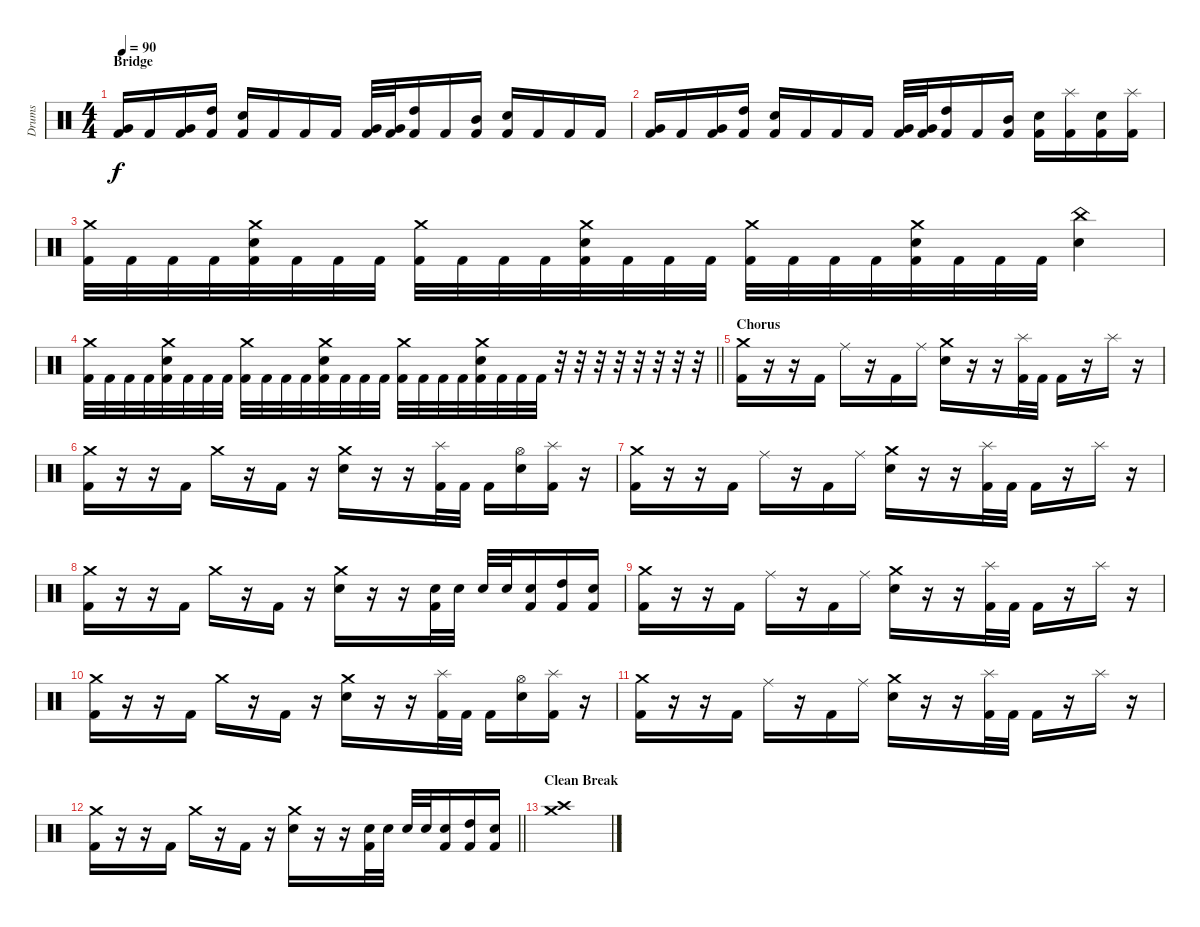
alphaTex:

\track ("Drums" "Drums") {instrument percussion}
\staff {score}
\articulation defaults
\ts (4 4)
\section ("" "Bridge")
\tempo 90
\clef neutral
\ks c
("Very Low Tom (hit)" "Kick (hit) 2").16{dy f} "Kick (hit) 2".16 ("Very Low Tom (hit)" "Kick (hit) 2").16 ("High Tom (hit)" "Kick (hit) 2").16 ("Electric Snare (hit)" "Kick (hit) 2").16 "Kick (hit) 2".16 "Kick (hit) 2".16 "Kick (hit) 2".16 ("Very Low Tom (hit)" "Kick (hit) 2").32 ("Very Low Tom (hit)" "Kick (hit) 2").32 ("High Tom (hit)" "Kick (hit) 2").16 "Kick (hit) 2".16 ("Mid Tom (hit)" "Kick (hit) 2").16 ("Electric Snare (hit)" "Kick (hit) 2").16 "Kick (hit) 2".16 "Kick (hit) 2".16 "Kick (hit) 2".16 |
("Very Low Tom (hit)" "Kick (hit) 2").16 "Kick (hit) 2".16 ("Very Low Tom (hit)" "Kick (hit) 2").16 ("High Tom (hit)" "Kick (hit) 2").16 ("Electric Snare (hit)" "Kick (hit) 2").16 "Kick (hit) 2".16 "Kick (hit) 2".16 "Kick (hit) 2".16 ("Very Low Tom (hit)" "Kick (hit) 2").32 ("Very Low Tom (hit)" "Kick (hit) 2").32 ("High Tom (hit)" "Kick (hit) 2").16 "Kick (hit) 2".16 ("Mid Tom (hit)" "Kick (hit) 2").16 ("Electric Snare (hit)" "Kick (hit) 2").16 ("Splash (hit)" "Kick (hit) 2").16 ("Electric Snare (hit)" "Kick (hit) 2").16 ("Splash (hit)" "Kick (hit) 2").16 |
("Crash medium (hit)" "Kick (hit) 2").32 "Kick (hit) 2".32 "Kick (hit) 2".32 "Kick (hit) 2".32 ("Crash medium (hit)" "Electric Snare (hit)" "Kick (hit) 2").32 "Kick (hit) 2".32 "Kick (hit) 2".32 "Kick (hit) 2".32 ("Crash medium (hit)" "Kick (hit) 2").32 "Kick (hit) 2".32 "Kick (hit) 2".32 "Kick (hit) 2".32 ("Crash medium (hit)" "Electric Snare (hit)" "Kick (hit) 2").32 "Kick (hit) 2".32 "Kick (hit) 2".32 "Kick (hit) 2".32 ("Crash medium (hit)" "Kick (hit) 2").32 "Kick (hit) 2".32 "Kick (hit) 2".32 "Kick (hit) 2".32 ("Crash medium (hit)" "Electric Snare (hit)" "Kick (hit) 2").32 "Kick (hit) 2".32 "Kick (hit) 2".32 "Kick (hit) 2".32 ("China (hit)" "Electric Snare (hit)").4 |
\barLineRight lightlight
("Crash medium (hit)" "Kick (hit) 2").32 "Kick (hit) 2".32 "Kick (hit) 2".32 "Kick (hit) 2".32 ("Crash medium (hit)" "Electric Snare (hit)" "Kick (hit) 2").32 "Kick (hit) 2".32 "Kick (hit) 2".32 "Kick (hit) 2".32 ("Crash medium (hit)" "Kick (hit) 2").32 "Kick (hit) 2".32 "Kick (hit) 2".32 "Kick (hit) 2".32 ("Crash medium (hit)" "Electric Snare (hit)" "Kick (hit) 2").32 "Kick (hit) 2".32 "Kick (hit) 2".32 "Kick (hit) 2".32 ("Crash medium (hit)" "Kick (hit) 2").32 "Kick (hit) 2".32 "Kick (hit) 2".32 "Kick (hit) 2".32 ("Crash medium (hit)" "Electric Snare (hit)" "Kick (hit) 2").32 "Kick (hit) 2".32 "Kick (hit) 2".32 "Kick (hit) 2".32 r.32 r.32 r.32 r.32 r.32 r.32 r.32 r.32 |
\section ("" "Chorus")
("Crash medium (hit)" "Kick (hit) 2").16 r.16 r.16 "Kick (hit) 2".16 "Ride (middle)".16 r.16 "Kick (hit) 2".16 "Ride (middle)".16 ("Crash medium (hit)" "Electric Snare (hit)").16 r.16 r.16 ("Splash (hit)" "Kick (hit) 2").32 "Kick (hit) 2".32 "Kick (hit) 2".16 r.16 "Splash (hit)".16 r.16 |
("Crash medium (hit)" "Kick (hit) 2").16 r.16 r.16 "Kick (hit) 2".16 "Crash medium (hit)".16 r.16 "Kick (hit) 2".16 r.16 ("Crash medium (hit)" "Electric Snare (hit)").16 r.16 r.16 ("Splash (hit)" "Kick (hit) 2").32 "Kick (hit) 2".32 "Kick (hit) 2".16 ("Hi-Hat (open)" "Electric Snare (hit)").16 ("Splash (hit)" "Kick (hit) 2").16 r.16 |
("Crash medium (hit)" "Kick (hit) 2").16 r.16 r.16 "Kick (hit) 2".16 "Ride (middle)".16 r.16 "Kick (hit) 2".16 "Ride (middle)".16 ("Crash medium (hit)" "Electric Snare (hit)").16 r.16 r.16 ("Splash (hit)" "Kick (hit) 2").32 "Kick (hit) 2".32 "Kick (hit) 2".16 r.16 "Splash (hit)".16 r.16 |
("Crash medium (hit)" "Kick (hit) 2").16 r.16 r.16 "Kick (hit) 2".16 "Crash medium (hit)".16 r.16 "Kick (hit) 2".16 r.16 ("Crash medium (hit)" "Electric Snare (hit)").16 r.16 r.16 ("Electric Snare (hit)" "Kick (hit) 2").32 "Electric Snare (hit)".32 "Electric Snare (hit)".32 "Electric Snare (hit)".32 ("Electric Snare (hit)" "Kick (hit) 2").16 ("High Tom (hit)" "Kick (hit) 2").16 ("Electric Snare (hit)" "Kick (hit) 2").16 |
("Crash medium (hit)" "Kick (hit) 2").16 r.16 r.16 "Kick (hit) 2".16 "Ride (middle)".16 r.16 "Kick (hit) 2".16 "Ride (middle)".16 ("Crash medium (hit)" "Electric Snare (hit)").16 r.16 r.16 ("Splash (hit)" "Kick (hit) 2").32 "Kick (hit) 2".32 "Kick (hit) 2".16 r.16 "Splash (hit)".16 r.16 |
("Crash medium (hit)" "Kick (hit) 2").16 r.16 r.16 "Kick (hit) 2".16 "Crash medium (hit)".16 r.16 "Kick (hit) 2".16 r.16 ("Crash medium (hit)" "Electric Snare (hit)").16 r.16 r.16 ("Splash (hit)" "Kick (hit) 2").32 "Kick (hit) 2".32 "Kick (hit) 2".16 ("Hi-Hat (open)" "Electric Snare (hit)").16 ("Splash (hit)" "Kick (hit) 2").16 r.16 |
("Crash medium (hit)" "Kick (hit) 2").16 r.16 r.16 "Kick (hit) 2".16 "Ride (middle)".16 r.16 "Kick (hit) 2".16 "Ride (middle)".16 ("Crash medium (hit)" "Electric Snare (hit)").16 r.16 r.16 ("Splash (hit)" "Kick (hit) 2").32 "Kick (hit) 2".32 "Kick (hit) 2".16 r.16 "Splash (hit)".16 r.16 |
\barLineRight lightlight
("Crash medium (hit)" "Kick (hit) 2").16 r.16 r.16 "Kick (hit) 2".16 "Crash medium (hit)".16 r.16 "Kick (hit) 2".16 r.16 ("Crash medium (hit)" "Electric Snare (hit)").16 r.16 r.16 ("Electric Snare (hit)" "Kick (hit) 2").32 "Electric Snare (hit)".32 "Electric Snare (hit)".32 "Electric Snare (hit)".32 ("Electric Snare (hit)" "Kick (hit) 2").16 ("High Tom (hit)" "Kick (hit) 2").16 ("Electric Snare (hit)" "Kick (hit) 2").16 |
\section ("" "Clean Break")
("Crash medium (hit)" "Crash high (hit)").1
